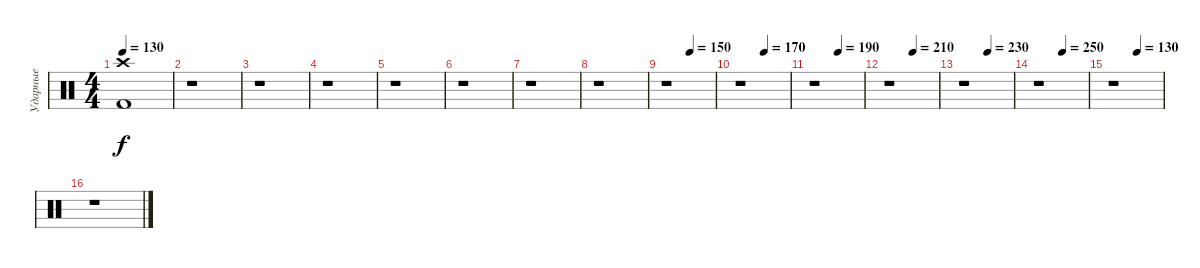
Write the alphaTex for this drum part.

\track ("Ударные" "Ударные") {instrument percussion}
\staff {score}
\articulation defaults
\ts (4 4)
\tempo 130
\clef neutral
\ks c
("Crash high (hit)" "Kick (hit) 2").1{dy f} |
r.1 |
r.1 |
r.1 |
r.1 |
r.1 |
r.1 |
r.1 |
\tempo (150 0.5)
r.1 |
\tempo (170 0.5)
r.1 |
\tempo (190 0.5)
r.1 |
\tempo (210 0.5)
r.1 |
\tempo (230 0.5)
r.1 |
\tempo (250 0.5)
r.1 |
\tempo (130 0.5)
r.1 |
r.1
